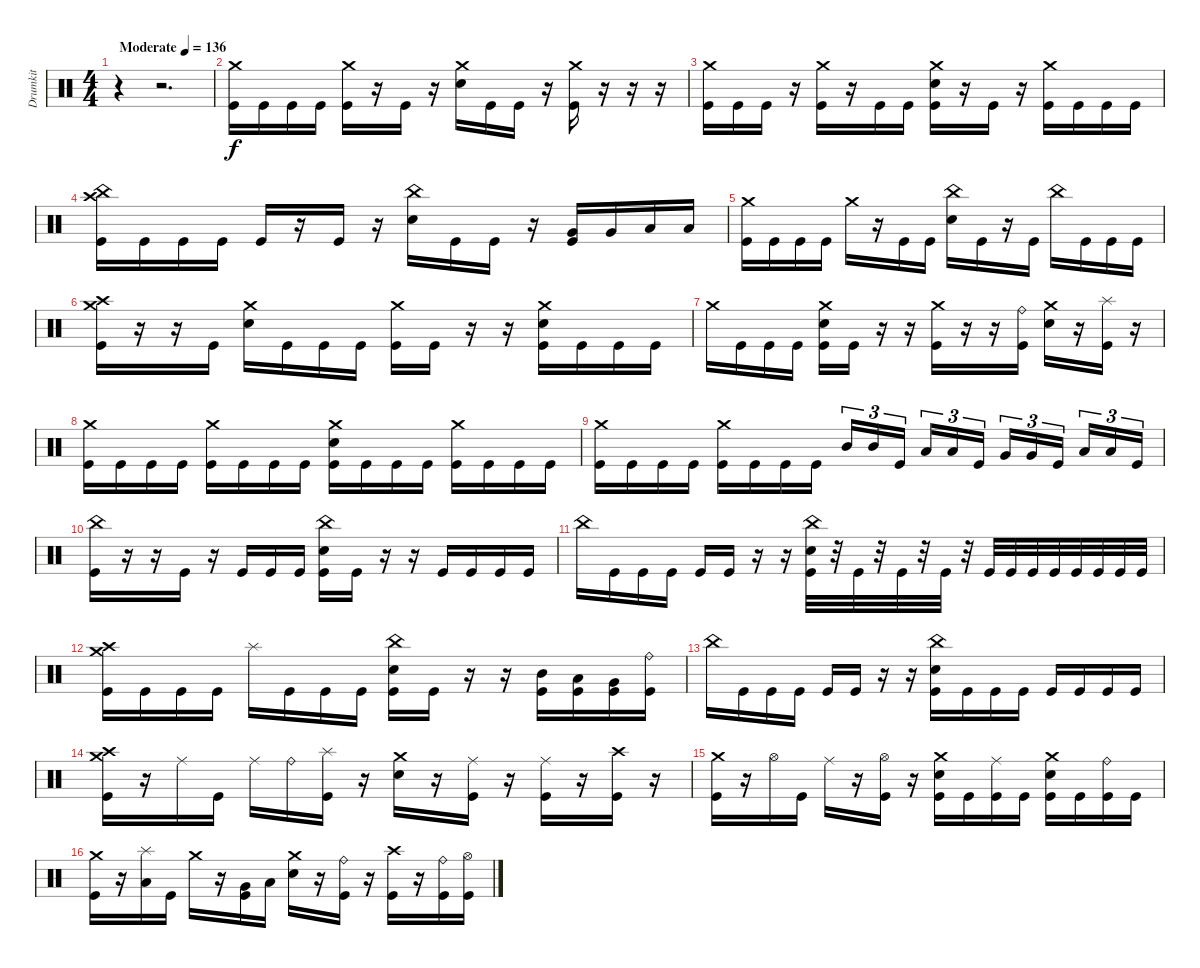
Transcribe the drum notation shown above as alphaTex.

\track ("Drumkit" "Drumkit") {instrument percussion}
\staff {score}
\articulation defaults
\ts (4 4)
\tempo (136 "Moderate")
\clef neutral
\ks c
r.4{dy f} r.2{d} |
("Crash medium (hit)" "Kick (hit)").16 "Kick (hit)".16 "Kick (hit)".16 "Kick (hit)".16 ("Crash medium (hit)" "Kick (hit)").16 r.16 "Kick (hit)".16 r.16 ("Crash medium (hit)" "Snare (hit) 2").16 "Kick (hit)".16 "Kick (hit)".16 r.16 ("Crash medium (hit)" "Kick (hit)").16 r.16 r.16 r.16 |
("Crash medium (hit)" "Kick (hit)").16 "Kick (hit)".16 "Kick (hit)".16 r.16 ("Crash medium (hit)" "Kick (hit)").16 r.16 "Kick (hit)".16 "Kick (hit)".16 ("Crash medium (hit)" "Snare (hit) 2" "Kick (hit)").16 r.16 "Kick (hit)".16 r.16 ("Crash medium (hit)" "Kick (hit)").16 "Kick (hit)".16 "Kick (hit)".16 "Kick (hit)".16 |
("China (hit)" "Crash high (hit)" "Kick (hit)").16 "Kick (hit)".16 "Kick (hit)".16 "Kick (hit)".16 "Kick (hit)".16 r.16 "Kick (hit)".16 r.16 ("China (hit)" "Snare (hit) 2").16 "Kick (hit)".16 "Kick (hit)".16 r.16 ("Very Low Tom (hit)" "Kick (hit)").16 "Very Low Tom (hit)".16 "Low Floor Tom (hit)".16 "Low Floor Tom (hit)".16 |
("Crash medium (hit)" "Kick (hit)").16 "Kick (hit)".16 "Kick (hit)".16 "Kick (hit)".16 "Crash medium (hit)".16 r.16 "Kick (hit)".16 "Kick (hit)".16 ("China (hit)" "Snare (hit) 2").16 "Kick (hit)".16 r.16 "Kick (hit)".16 "China (hit)".16 "Kick (hit)".16 "Kick (hit)".16 "Kick (hit)".16 |
("Crash medium (hit)" "Crash high (hit)" "Kick (hit)").16 r.16 r.16 "Kick (hit)".16 ("Crash medium (hit)" "Snare (hit) 2").16 "Kick (hit)".16 "Kick (hit)".16 "Kick (hit)".16 ("Crash medium (hit)" "Kick (hit)").16 "Kick (hit)".16 r.16 r.16 ("Crash medium (hit)" "Snare (hit) 2" "Kick (hit)").16 "Kick (hit)".16 "Kick (hit)".16 "Kick (hit)".16 |
"Crash medium (hit)".16 "Kick (hit)".16 "Kick (hit)".16 "Kick (hit)".16 ("Crash medium (hit)" "Snare (hit) 2" "Kick (hit)").16 "Kick (hit)".16 r.16 r.16 ("Crash medium (hit)" "Kick (hit)").16 r.16 r.16 ("Ride (bell)" "Kick (hit)").16 ("Crash medium (hit)" "Snare (hit) 2").16 r.16 ("Splash (hit)" "Kick (hit)").16 r.16 |
("Crash medium (hit)" "Kick (hit)").16 "Kick (hit)".16 "Kick (hit)".16 "Kick (hit)".16 ("Crash medium (hit)" "Kick (hit)").16 "Kick (hit)".16 "Kick (hit)".16 "Kick (hit)".16 ("Crash medium (hit)" "Snare (hit) 2" "Kick (hit)").16 "Kick (hit)".16 "Kick (hit)".16 "Kick (hit)".16 ("Crash medium (hit)" "Kick (hit)").16 "Kick (hit)".16 "Kick (hit)".16 "Kick (hit)".16 |
("Crash medium (hit)" "Kick (hit)").16 "Kick (hit)".16 "Kick (hit)".16 "Kick (hit)".16 ("Crash medium (hit)" "Kick (hit)").16 "Kick (hit)".16 "Kick (hit)".16 "Kick (hit)".16 "Mid Tom (hit)".16{tu (3 2)} "Mid Tom (hit)".16{tu (3 2)} "Kick (hit)".16{tu (3 2)} "Low Tom (hit)".16{tu (3 2)} "Low Tom (hit)".16{tu (3 2)} "Kick (hit)".16{tu (3 2)} "Very Low Tom (hit)".16{tu (3 2)} "Very Low Tom (hit)".16{tu (3 2)} "Kick (hit)".16{tu (3 2)} "Low Floor Tom (hit)".16{tu (3 2)} "Low Floor Tom (hit)".16{tu (3 2)} "Kick (hit)".16{tu (3 2)} |
("China (hit)" "Kick (hit)").16 r.16 r.16 "Kick (hit)".16 r.16 "Kick (hit)".16 "Kick (hit)".16 "Kick (hit)".16 ("China (hit)" "Snare (hit) 2" "Kick (hit)").16 "Kick (hit)".16 r.16 r.16 "Kick (hit)".16 "Kick (hit)".16 "Kick (hit)".16 "Kick (hit)".16 |
"China (hit)".16 "Kick (hit)".16 "Kick (hit)".16 "Kick (hit)".16 "Kick (hit)".16 "Kick (hit)".16 r.16 r.16 ("China (hit)" "Snare (hit) 2" "Kick (hit)").32 r.32 "Kick (hit)".32 r.32 "Kick (hit)".32 r.32 "Kick (hit)".32 r.32 "Kick (hit)".32 "Kick (hit)".32 "Kick (hit)".32 "Kick (hit)".32 "Kick (hit)".32 "Kick (hit)".32 "Kick (hit)".32 "Kick (hit)".32 |
("Crash medium (hit)" "Crash high (hit)" "Kick (hit)").16 "Kick (hit)".16 "Kick (hit)".16 "Kick (hit)".16 "Splash (hit)".16 "Kick (hit)".16 "Kick (hit)".16 "Kick (hit)".16 ("China (hit)" "Snare (hit) 2" "Kick (hit)").16 "Kick (hit)".16 r.16 r.16 ("Mid Tom (hit)" "Kick (hit)").16 ("Low Tom (hit)" "Kick (hit)").16 ("Very Low Tom (hit)" "Kick (hit)").16 ("Ride (bell)" "Kick (hit)").16 |
"China (hit)".16 "Kick (hit)".16 "Kick (hit)".16 "Kick (hit)".16 "Kick (hit)".16 "Kick (hit)".16 r.16 r.16 ("China (hit)" "Snare (hit) 2" "Kick (hit)").16 "Kick (hit)".16 "Kick (hit)".16 "Kick (hit)".16 "Kick (hit)".16 "Kick (hit)".16 "Kick (hit)".16 "Kick (hit)".16 |
("Crash medium (hit)" "Crash high (hit)" "Kick (hit)").16 r.16 "Ride (middle)".16 "Kick (hit)".16 "Ride (middle)".16 "Ride (bell)".16 ("Splash (hit)" "Kick (hit)").16 r.16 ("Crash medium (hit)" "Snare (hit) 2").16 r.16 ("Ride (middle)" "Kick (hit)").16 r.16 ("Ride (middle)" "Kick (hit)").16 r.16 ("Crash high (hit)" "Kick (hit)").16 r.16 |
("Crash medium (hit)" "Kick (hit)").16 r.16 "Hi-Hat (open)".16 "Kick (hit)".16 "Ride (middle)".16 r.16 ("Hi-Hat (open)" "Kick (hit)").16 r.16 ("Crash medium (hit)" "Snare (hit) 2" "Kick (hit)").16 "Kick (hit)".16 ("Ride (middle)" "Kick (hit)").16 "Kick (hit)".16 ("Crash medium (hit)" "Snare (hit) 2" "Kick (hit)").16 "Kick (hit)".16 ("Ride (bell)" "Kick (hit)").16 "Kick (hit)".16 |
("Crash medium (hit)" "Kick (hit)").16 r.16 ("Low Tom (hit)" "Splash (hit)").16 "Kick (hit)".16 "Crash medium (hit)".16 r.16 ("Very Low Tom (hit)" "Kick (hit)").16 "Low Floor Tom (hit)".16 ("Crash medium (hit)" "Snare (hit) 2").16 r.16 ("Ride (bell)" "Kick (hit)").16 r.16 ("Crash high (hit)" "Kick (hit)").16 r.16 ("Ride (bell)" "Kick (hit)").16 ("Hi-Hat (open)" "Kick (hit)").16
